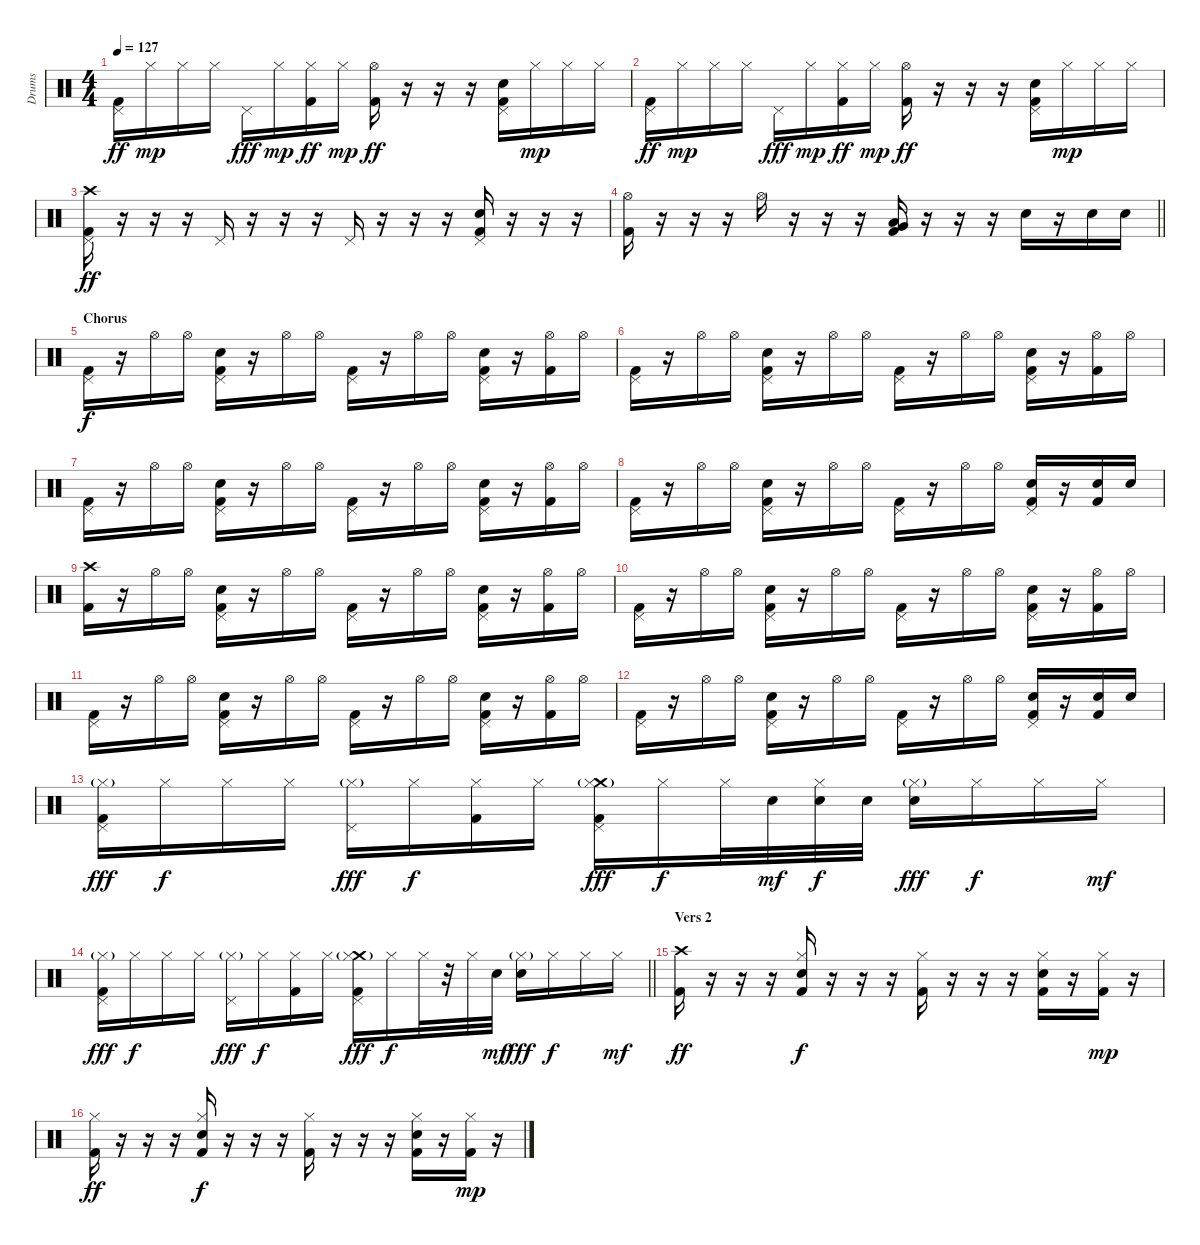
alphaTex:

\track ("Drums" "Drums") {instrument percussion}
\staff {score}
\articulation defaults
\ts (4 4)
\tempo 127
\clef neutral
\ks c
("Pedal Hi-Hat (hit)" "Kick (hit) 2").16{dy ff} "Hi-Hat (closed)".16{dy mp} "Hi-Hat (closed)".16 "Hi-Hat (closed)".16 "Pedal Hi-Hat (hit)".16{dy fff} "Hi-Hat (closed)".16{dy mp} ("Hi-Hat (closed)" "Kick (hit) 2").16{dy ff} "Hi-Hat (closed)".16{dy mp} ("Hi-Hat (open)" "Kick (hit) 2").16{dy ff} r.16 r.16 r.16 ("Snare (hit) 2" "Pedal Hi-Hat (hit)" "Kick (hit) 2").16 "Hi-Hat (closed)".16{dy mp} "Hi-Hat (closed)".16 "Hi-Hat (closed)".16 |
("Pedal Hi-Hat (hit)" "Kick (hit) 2").16{dy ff} "Hi-Hat (closed)".16{dy mp} "Hi-Hat (closed)".16 "Hi-Hat (closed)".16 "Pedal Hi-Hat (hit)".16{dy fff} "Hi-Hat (closed)".16{dy mp} ("Hi-Hat (closed)" "Kick (hit) 2").16{dy ff} "Hi-Hat (closed)".16{dy mp} ("Hi-Hat (open)" "Kick (hit) 2").16{dy ff} r.16 r.16 r.16 ("Snare (hit) 2" "Pedal Hi-Hat (hit)" "Kick (hit) 2").16 "Hi-Hat (closed)".16{dy mp} "Hi-Hat (closed)".16 "Hi-Hat (closed)".16 |
("Crash high (hit)" "Pedal Hi-Hat (hit)" "Kick (hit) 2").16{dy ff} r.16 r.16 r.16 "Pedal Hi-Hat (hit)".16 r.16 r.16 r.16 "Pedal Hi-Hat (hit)".16 r.16 r.16 r.16 ("Pedal Hi-Hat (hit)" "Snare (hit) 2" "Kick (hit) 2").16 r.16 r.16 r.16 |
\barLineRight lightlight
("Hi-Hat (open)" "Kick (hit) 2").16 r.16 r.16 r.16 "Hi-Hat (open)".16 r.16 r.16 r.16 ("Low Tom (hit)" "Very Low Tom (hit)" "Kick (hit) 2").16 r.16 r.16 r.16 "Snare (hit) 2".16 r.16 "Snare (hit) 2".16 "Snare (hit) 2".16 |
\section ("" "Chorus")
("Pedal Hi-Hat (hit)" "Kick (hit) 2").16{dy f} r.16 "Hi-Hat (open)".16 "Hi-Hat (open)".16 ("Pedal Hi-Hat (hit)" "Snare (hit) 2" "Kick (hit) 2").16 r.16 "Hi-Hat (open)".16 "Hi-Hat (open)".16 ("Pedal Hi-Hat (hit)" "Kick (hit) 2").16 r.16 "Hi-Hat (open)".16 "Hi-Hat (open)".16 ("Pedal Hi-Hat (hit)" "Snare (hit) 2" "Kick (hit) 2").16 r.16 ("Hi-Hat (open)" "Kick (hit) 2").16 "Hi-Hat (open)".16 |
("Pedal Hi-Hat (hit)" "Kick (hit) 2").16 r.16 "Hi-Hat (open)".16 "Hi-Hat (open)".16 ("Pedal Hi-Hat (hit)" "Snare (hit) 2" "Kick (hit) 2").16 r.16 "Hi-Hat (open)".16 "Hi-Hat (open)".16 ("Pedal Hi-Hat (hit)" "Kick (hit) 2").16 r.16 "Hi-Hat (open)".16 "Hi-Hat (open)".16 ("Pedal Hi-Hat (hit)" "Snare (hit) 2" "Kick (hit) 2").16 r.16 ("Hi-Hat (open)" "Kick (hit) 2").16 "Hi-Hat (open)".16 |
("Pedal Hi-Hat (hit)" "Kick (hit) 2").16 r.16 "Hi-Hat (open)".16 "Hi-Hat (open)".16 ("Pedal Hi-Hat (hit)" "Snare (hit) 2" "Kick (hit) 2").16 r.16 "Hi-Hat (open)".16 "Hi-Hat (open)".16 ("Pedal Hi-Hat (hit)" "Kick (hit) 2").16 r.16 "Hi-Hat (open)".16 "Hi-Hat (open)".16 ("Pedal Hi-Hat (hit)" "Snare (hit) 2" "Kick (hit) 2").16 r.16 ("Hi-Hat (open)" "Kick (hit) 2").16 "Hi-Hat (open)".16 |
("Pedal Hi-Hat (hit)" "Kick (hit) 2").16 r.16 "Hi-Hat (open)".16 "Hi-Hat (open)".16 ("Pedal Hi-Hat (hit)" "Snare (hit) 2" "Kick (hit) 2").16 r.16 "Hi-Hat (open)".16 "Hi-Hat (open)".16 ("Pedal Hi-Hat (hit)" "Kick (hit) 2").16 r.16 "Hi-Hat (open)".16 "Hi-Hat (open)".16 ("Pedal Hi-Hat (hit)" "Snare (hit) 2" "Kick (hit) 2").16 r.16 ("Snare (hit) 2" "Kick (hit) 2").16 "Snare (hit) 2".16 |
("Crash high (hit)" "Kick (hit) 2").16 r.16 "Hi-Hat (open)".16 "Hi-Hat (open)".16 ("Pedal Hi-Hat (hit)" "Snare (hit) 2" "Kick (hit) 2").16 r.16 "Hi-Hat (open)".16 "Hi-Hat (open)".16 ("Pedal Hi-Hat (hit)" "Kick (hit) 2").16 r.16 "Hi-Hat (open)".16 "Hi-Hat (open)".16 ("Pedal Hi-Hat (hit)" "Snare (hit) 2" "Kick (hit) 2").16 r.16 ("Hi-Hat (open)" "Kick (hit) 2").16 "Hi-Hat (open)".16 |
("Pedal Hi-Hat (hit)" "Kick (hit) 2").16 r.16 "Hi-Hat (open)".16 "Hi-Hat (open)".16 ("Pedal Hi-Hat (hit)" "Snare (hit) 2" "Kick (hit) 2").16 r.16 "Hi-Hat (open)".16 "Hi-Hat (open)".16 ("Pedal Hi-Hat (hit)" "Kick (hit) 2").16 r.16 "Hi-Hat (open)".16 "Hi-Hat (open)".16 ("Pedal Hi-Hat (hit)" "Snare (hit) 2" "Kick (hit) 2").16 r.16 ("Hi-Hat (open)" "Kick (hit) 2").16 "Hi-Hat (open)".16 |
("Pedal Hi-Hat (hit)" "Kick (hit) 2").16 r.16 "Hi-Hat (open)".16 "Hi-Hat (open)".16 ("Pedal Hi-Hat (hit)" "Snare (hit) 2" "Kick (hit) 2").16 r.16 "Hi-Hat (open)".16 "Hi-Hat (open)".16 ("Pedal Hi-Hat (hit)" "Kick (hit) 2").16 r.16 "Hi-Hat (open)".16 "Hi-Hat (open)".16 ("Pedal Hi-Hat (hit)" "Snare (hit) 2" "Kick (hit) 2").16 r.16 ("Hi-Hat (open)" "Kick (hit) 2").16 "Hi-Hat (open)".16 |
("Pedal Hi-Hat (hit)" "Kick (hit) 2").16 r.16 "Hi-Hat (open)".16 "Hi-Hat (open)".16 ("Pedal Hi-Hat (hit)" "Snare (hit) 2" "Kick (hit) 2").16 r.16 "Hi-Hat (open)".16 "Hi-Hat (open)".16 ("Pedal Hi-Hat (hit)" "Kick (hit) 2").16 r.16 "Hi-Hat (open)".16 "Hi-Hat (open)".16 ("Pedal Hi-Hat (hit)" "Snare (hit) 2" "Kick (hit) 2").16 r.16 ("Snare (hit) 2" "Kick (hit) 2").16 "Snare (hit) 2".16 |
("Hi-Hat (closed)"{g} "Pedal Hi-Hat (hit)" "Kick (hit) 2").16{dy fff} "Hi-Hat (closed)".16{dy f} "Hi-Hat (closed)".16 "Hi-Hat (closed)".16 ("Hi-Hat (closed)"{g} "Pedal Hi-Hat (hit)").16{dy fff} "Hi-Hat (closed)".16{dy f} ("Hi-Hat (closed)" "Kick (hit) 2").16 "Hi-Hat (closed)".16 ("Crash medium (hit)" "Hi-Hat (closed)"{g} "Pedal Hi-Hat (hit)" "Kick (hit) 2").16{dy fff} "Hi-Hat (closed)".16{dy f} "Hi-Hat (closed)".32 "Snare (hit) 2".32{dy mf} ("Hi-Hat (closed)" "Snare (hit) 2").32{dy f} "Snare (hit) 2".32 ("Hi-Hat (closed)"{g} "Snare (hit) 2").16{dy fff} "Hi-Hat (closed)".16{dy f} "Hi-Hat (closed)".16 "Hi-Hat (closed)".16{dy mf} |
\barLineRight lightlight
("Hi-Hat (closed)"{g} "Pedal Hi-Hat (hit)" "Kick (hit) 2").16{dy fff} "Hi-Hat (closed)".16{dy f} "Hi-Hat (closed)".16 "Hi-Hat (closed)".16 ("Hi-Hat (closed)"{g} "Pedal Hi-Hat (hit)").16{dy fff} "Hi-Hat (closed)".16{dy f} ("Hi-Hat (closed)" "Kick (hit) 2").16 "Hi-Hat (closed)".16 ("Crash medium (hit)" "Hi-Hat (closed)"{g} "Pedal Hi-Hat (hit)" "Kick (hit) 2").16{dy fff} "Hi-Hat (closed)".16{dy f} "Hi-Hat (closed)".32 r.32 "Hi-Hat (closed)".32 "Snare (hit) 2".32{dy mf} ("Hi-Hat (closed)"{g} "Snare (hit) 2").16{dy fff} "Hi-Hat (closed)".16{dy f} "Hi-Hat (closed)".16 "Hi-Hat (closed)".16{dy mf} |
\section ("" "Vers 2")
("Crash high (hit)" "Kick (hit) 2").16{dy ff} r.16 r.16 r.16 ("Hi-Hat (closed)" "Snare (hit) 2" "Kick (hit) 2").16{dy f} r.16 r.16 r.16 ("Hi-Hat (closed)" "Kick (hit) 2").16 r.16 r.16 r.16 ("Hi-Hat (closed)" "Snare (hit) 2" "Kick (hit) 2").16 r.16 ("Hi-Hat (closed)" "Kick (hit) 2").16{dy mp} r.16 |
("Hi-Hat (closed)" "Kick (hit) 2").16{dy ff} r.16 r.16 r.16 ("Hi-Hat (closed)" "Snare (hit) 2" "Kick (hit) 2").16{dy f} r.16 r.16 r.16 ("Hi-Hat (closed)" "Kick (hit) 2").16 r.16 r.16 r.16 ("Hi-Hat (closed)" "Snare (hit) 2" "Kick (hit) 2").16 r.16 ("Hi-Hat (closed)" "Kick (hit) 2").16{dy mp} r.16
